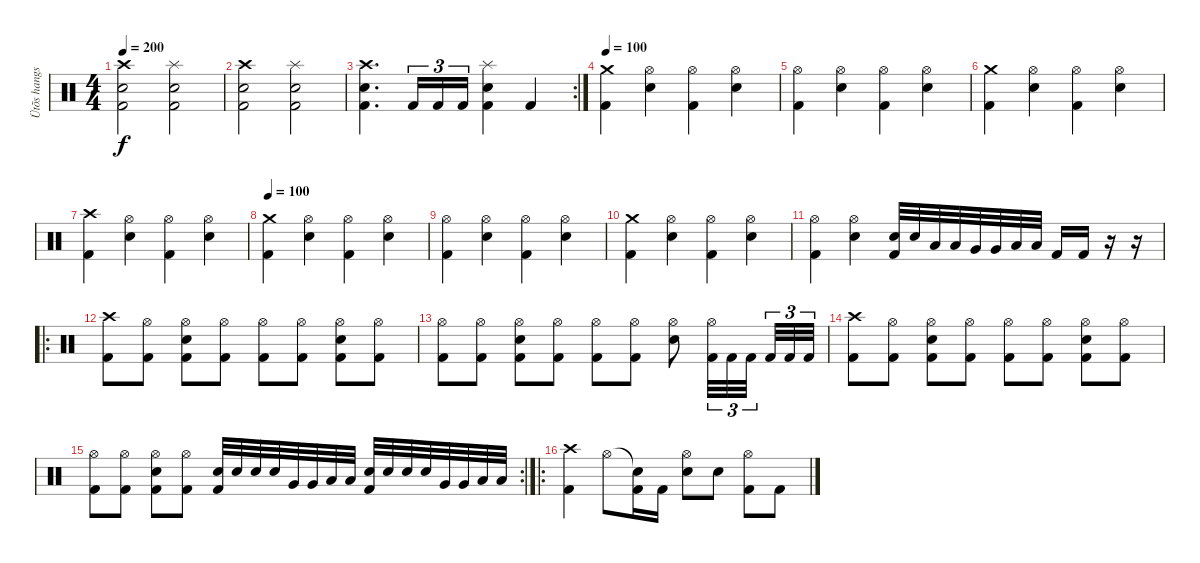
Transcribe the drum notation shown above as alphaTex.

\track ("Ütõs hangszer" "Ütõs hangs") {instrument percussion}
\staff {score}
\articulation defaults
\ts (4 4)
\tempo 200
\clef neutral
\ks c
("Crash high (hit)" "Snare (hit) 2" "Kick (hit) 2").2{dy f} ("Splash (hit)" "Snare (hit) 2" "Kick (hit) 2").2 |
("Crash high (hit)" "Snare (hit) 2" "Kick (hit) 2").2 ("Splash (hit)" "Snare (hit) 2" "Kick (hit) 2").2 |
\rc 2
("Crash high (hit)" "Snare (hit) 2" "Kick (hit) 2").4{d} "Kick (hit) 2".16{tu (3 2)} "Kick (hit) 2".16{tu (3 2)} "Kick (hit) 2".16{tu (3 2)} ("Splash (hit)" "Snare (hit) 2" "Kick (hit) 2").4 "Kick (hit) 2".4 |
\tempo 100
("Crash medium (hit)" "Kick (hit) 2").4 ("Hi-Hat (open)" "Snare (hit) 2").4 ("Hi-Hat (open)" "Kick (hit) 2").4 ("Hi-Hat (open)" "Snare (hit) 2").4 |
("Hi-Hat (open)" "Kick (hit) 2").4 ("Hi-Hat (open)" "Snare (hit) 2").4 ("Hi-Hat (open)" "Kick (hit) 2").4 ("Hi-Hat (open)" "Snare (hit) 2").4 |
("Crash medium (hit)" "Kick (hit) 2").4 ("Hi-Hat (open)" "Snare (hit) 2").4 ("Hi-Hat (open)" "Kick (hit) 2").4 ("Hi-Hat (open)" "Snare (hit) 2").4 |
("Crash high (hit)" "Kick (hit) 2").4 ("Hi-Hat (open)" "Snare (hit) 2").4 ("Hi-Hat (open)" "Kick (hit) 2").4 ("Hi-Hat (open)" "Snare (hit) 2").4 |
\tempo 100
("Crash medium (hit)" "Kick (hit) 2").4 ("Hi-Hat (open)" "Snare (hit) 2").4 ("Hi-Hat (open)" "Kick (hit) 2").4 ("Hi-Hat (open)" "Snare (hit) 2").4 |
("Hi-Hat (open)" "Kick (hit) 2").4 ("Hi-Hat (open)" "Snare (hit) 2").4 ("Hi-Hat (open)" "Kick (hit) 2").4 ("Hi-Hat (open)" "Snare (hit) 2").4 |
("Crash medium (hit)" "Kick (hit) 2").4 ("Hi-Hat (open)" "Snare (hit) 2").4 ("Hi-Hat (open)" "Kick (hit) 2").4 ("Hi-Hat (open)" "Snare (hit) 2").4 |
("Hi-Hat (open)" "Kick (hit) 2").4 ("Hi-Hat (open)" "Snare (hit) 2").4 ("Snare (hit) 2" "Kick (hit) 2").32 "Snare (hit) 2".32 "Low Tom (hit)".32 "Low Tom (hit)".32 "Very Low Tom (hit)".32 "Very Low Tom (hit)".32 "Low Floor Tom (hit)".32 "Low Floor Tom (hit)".32 "Kick (hit) 2".16 "Kick (hit) 2".16 r.16 r.16 |
\ro
("Crash high (hit)" "Kick (hit) 2").8 ("Hi-Hat (open)" "Kick (hit) 2").8 ("Hi-Hat (open)" "Snare (hit) 2" "Kick (hit) 2").8 ("Hi-Hat (open)" "Kick (hit) 2").8 ("Hi-Hat (open)" "Kick (hit) 2").8 ("Hi-Hat (open)" "Kick (hit) 2").8 ("Hi-Hat (open)" "Snare (hit) 2" "Kick (hit) 2").8 ("Hi-Hat (open)" "Kick (hit) 2").8 |
("Hi-Hat (open)" "Kick (hit) 2").8 ("Hi-Hat (open)" "Kick (hit) 2").8 ("Hi-Hat (open)" "Snare (hit) 2" "Kick (hit) 2").8 ("Hi-Hat (open)" "Kick (hit) 2").8 ("Hi-Hat (open)" "Kick (hit) 2").8 ("Hi-Hat (open)" "Kick (hit) 2").8 ("Hi-Hat (open)" "Snare (hit) 2").8 ("Hi-Hat (open)" "Kick (hit) 2").32{tu (3 2)} "Kick (hit) 2".32{tu (3 2)} "Kick (hit) 2".32{tu (3 2) beam splitsecondary} "Kick (hit) 2".32{tu (3 2)} "Kick (hit) 2".32{tu (3 2)} "Kick (hit) 2".32{tu (3 2)} |
("Crash high (hit)" "Kick (hit) 2").8 ("Hi-Hat (open)" "Kick (hit) 2").8 ("Hi-Hat (open)" "Snare (hit) 2" "Kick (hit) 2").8 ("Hi-Hat (open)" "Kick (hit) 2").8 ("Hi-Hat (open)" "Kick (hit) 2").8 ("Hi-Hat (open)" "Kick (hit) 2").8 ("Hi-Hat (open)" "Snare (hit) 2" "Kick (hit) 2").8 ("Hi-Hat (open)" "Kick (hit) 2").8 |
\rc 2
("Hi-Hat (open)" "Kick (hit) 2").8 ("Hi-Hat (open)" "Kick (hit) 2").8 ("Hi-Hat (open)" "Snare (hit) 2" "Kick (hit) 2").8 ("Hi-Hat (open)" "Kick (hit) 2").8 ("Snare (hit) 2" "Kick (hit) 2").32 "Snare (hit) 2".32 "Snare (hit) 2".32 "Snare (hit) 2".32 "Very Low Tom (hit)".32 "Very Low Tom (hit)".32 "Low Floor Tom (hit)".32 "Low Floor Tom (hit)".32 ("Snare (hit) 2" "Kick (hit) 2").32 "Snare (hit) 2".32 "Snare (hit) 2".32 "Snare (hit) 2".32 "Very Low Tom (hit)".32 "Very Low Tom (hit)".32 "Low Floor Tom (hit)".32 "Low Floor Tom (hit)".32 |
\ro
("Crash high (hit)" "Kick (hit) 2").4 "Hi-Hat (open)".8 ("Snare (hit)"{t} "Kick (hit) 2").16 "Kick (hit) 2".16 ("Hi-Hat (open)" "Snare (hit) 2").8 "Snare (hit) 2".8 ("Hi-Hat (open)" "Kick (hit) 2").8 "Kick (hit) 2".8
